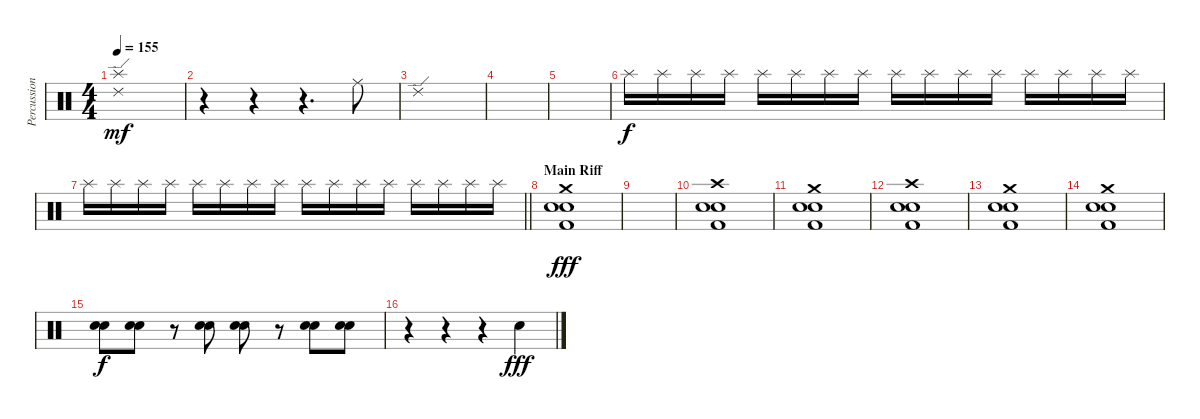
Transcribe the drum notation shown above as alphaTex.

\track ("Percussion" "Percussion") {instrument percussion}
\staff {score}
\articulation defaults
\ts (4 4)
\tempo 155
\clef neutral
\ks c
("Ride (edge) 2" "Splash (hit)").1{dy mf} |
r.4 r.4 r.4{d} "Ride (middle)".8 |
"Ride (edge) 2".1 |
|
|
"Splash (hit)".16{dy f volume 12} "Splash (hit)".16 "Splash (hit)".16 "Splash (hit)".16 "Splash (hit)".16 "Splash (hit)".16 "Splash (hit)".16 "Splash (hit)".16 "Splash (hit)".16 "Splash (hit)".16 "Splash (hit)".16 "Splash (hit)".16 "Splash (hit)".16 "Splash (hit)".16 "Splash (hit)".16 "Splash (hit)".16 |
\barLineRight lightlight "Splash (hit)".16 "Splash (hit)".16 "Splash (hit)".16 "Splash (hit)".16 "Splash (hit)".16 "Splash (hit)".16 "Splash (hit)".16 "Splash (hit)".16 "Splash (hit)".16 "Splash (hit)".16 "Splash (hit)".16 "Splash (hit)".16 "Splash (hit)".16 "Splash (hit)".16 "Splash (hit)".16 "Splash (hit)".16
|
\section ("" "Main Riff")
("Crash medium (hit)" "Electric Snare (hit)" "Hand Clap (hit)" "Kick (hit) 2").1{dy fff} |
|
("Crash high (hit)" "Electric Snare (hit)" "Hand Clap (hit)" "Kick (hit) 2").1 |
("Crash medium (hit)" "Electric Snare (hit)" "Hand Clap (hit)" "Kick (hit) 2").1 |
("Crash high (hit)" "Electric Snare (hit)" "Hand Clap (hit)" "Kick (hit) 2").1 |
("Crash medium (hit)" "Electric Snare (hit)" "Hand Clap (hit)" "Kick (hit) 2").1 |
("Crash medium (hit)" "Electric Snare (hit)" "Hand Clap (hit)" "Kick (hit) 2").1 |
("Electric Snare (hit)" "Hand Clap (hit)").8{dy f} ("Electric Snare (hit)" "Hand Clap (hit)").8 r.8 ("Electric Snare (hit)" "Hand Clap (hit)").8 ("Electric Snare (hit)" "Hand Clap (hit)").8 r.8 ("Electric Snare (hit)" "Hand Clap (hit)").8 ("Electric Snare (hit)" "Hand Clap (hit)").8 |
r.4 r.4 r.4 "Electric Snare (hit)".4{dy fff}
